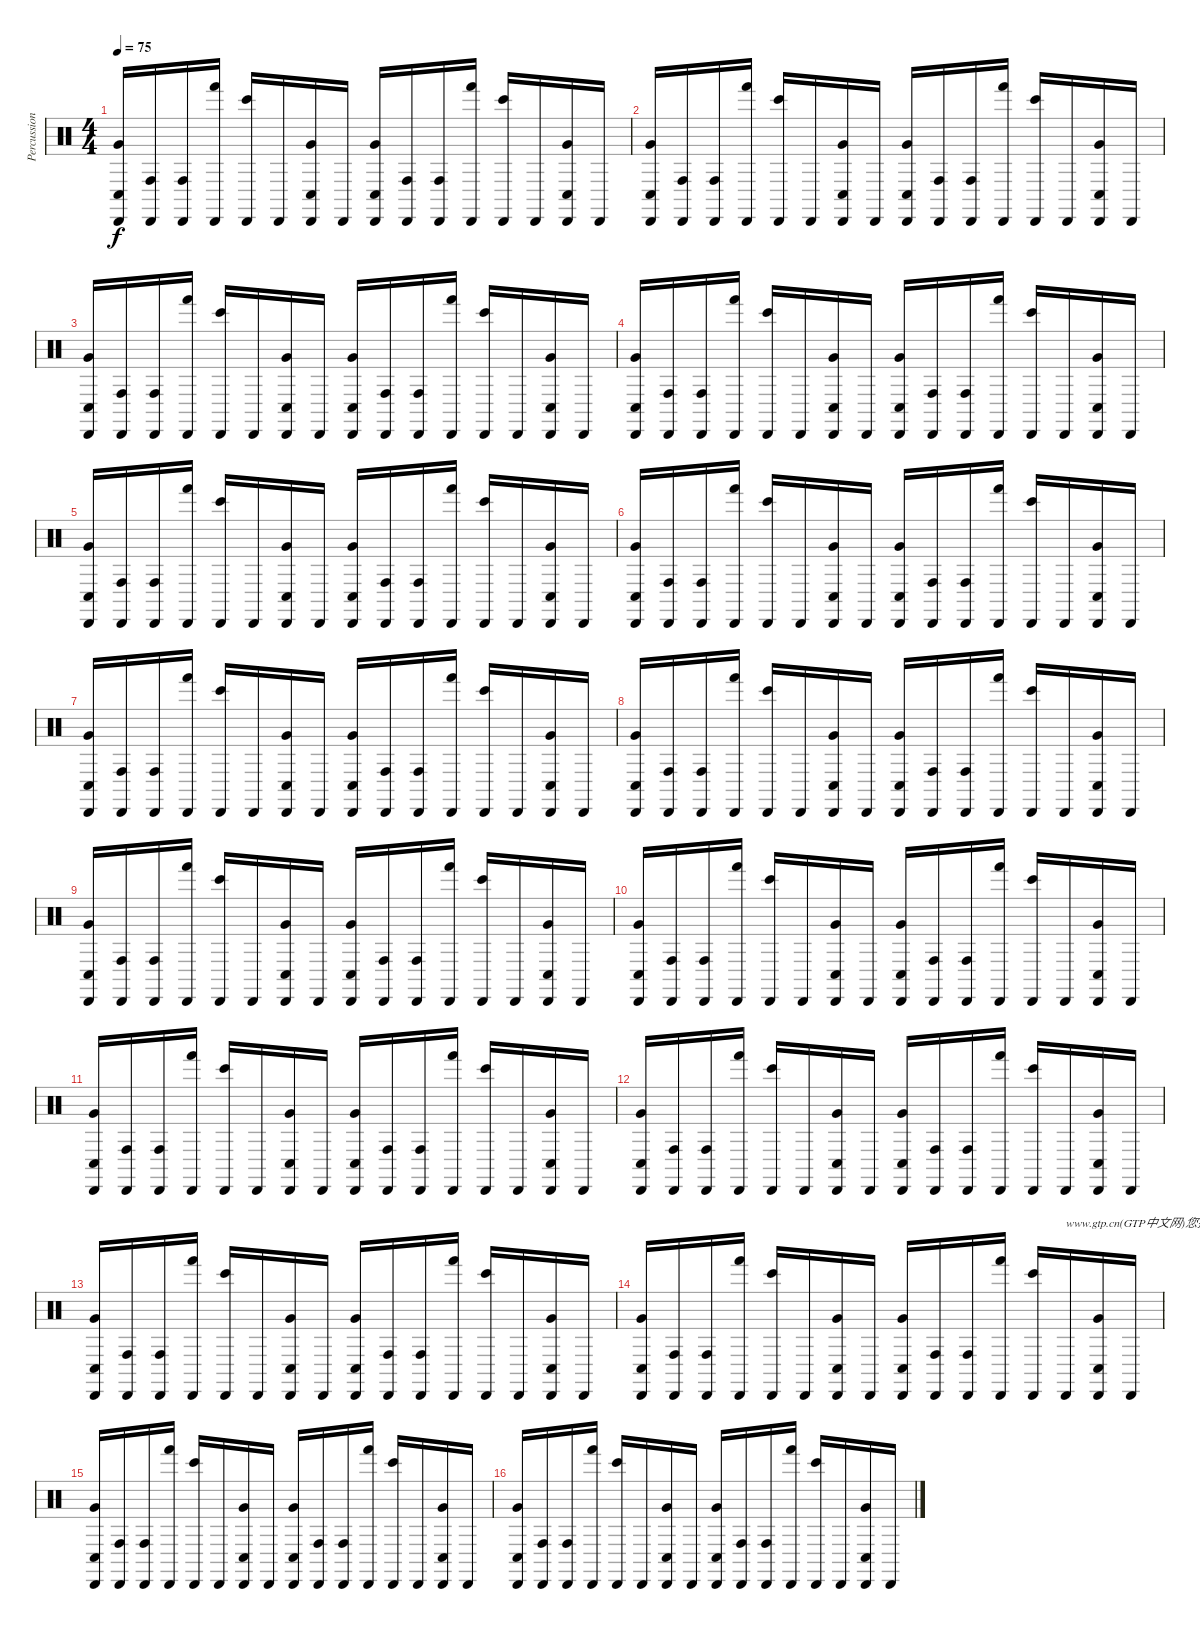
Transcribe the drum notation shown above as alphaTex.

\track ("Percussions" "Percussion") {instrument percussion}
\staff {score}
\articulation defaults
\ts (4 4)
\tempo 75
\clef neutral
\ks c
("Conga low (hit)" "Very Low Tom (hit)" "Cabasa (hit)").16{dy f} ("Conga high (hit)" "Cabasa (hit)").16 ("Conga high (hit)" "Cabasa (hit)").16 ("Hand (hit)" "Cabasa (hit)").16 ("Bongo High (hit)" "Cabasa (hit)").16 "Cabasa (hit)".16 ("Conga low (hit)" "Very Low Tom (hit)" "Cabasa (hit)").16 "Cabasa (hit)".16 ("Conga low (hit)" "Very Low Tom (hit)" "Cabasa (hit)").16 ("Conga high (hit)" "Cabasa (hit)").16 ("Conga high (hit)" "Cabasa (hit)").16 ("Hand (hit)" "Cabasa (hit)").16 ("Bongo High (hit)" "Cabasa (hit)").16 "Cabasa (hit)".16 ("Conga low (hit)" "Very Low Tom (hit)" "Cabasa (hit)").16 "Cabasa (hit)".16 |
("Conga low (hit)" "Very Low Tom (hit)" "Cabasa (hit)").16 ("Conga high (hit)" "Cabasa (hit)").16 ("Conga high (hit)" "Cabasa (hit)").16 ("Hand (hit)" "Cabasa (hit)").16 ("Bongo High (hit)" "Cabasa (hit)").16 "Cabasa (hit)".16 ("Conga low (hit)" "Very Low Tom (hit)" "Cabasa (hit)").16 "Cabasa (hit)".16 ("Conga low (hit)" "Very Low Tom (hit)" "Cabasa (hit)").16 ("Conga high (hit)" "Cabasa (hit)").16 ("Conga high (hit)" "Cabasa (hit)").16 ("Hand (hit)" "Cabasa (hit)").16 ("Bongo High (hit)" "Cabasa (hit)").16 "Cabasa (hit)".16 ("Conga low (hit)" "Very Low Tom (hit)" "Cabasa (hit)").16 "Cabasa (hit)".16 |
("Conga low (hit)" "Very Low Tom (hit)" "Cabasa (hit)").16 ("Conga high (hit)" "Cabasa (hit)").16 ("Conga high (hit)" "Cabasa (hit)").16 ("Hand (hit)" "Cabasa (hit)").16 ("Bongo High (hit)" "Cabasa (hit)").16 "Cabasa (hit)".16 ("Conga low (hit)" "Very Low Tom (hit)" "Cabasa (hit)").16 "Cabasa (hit)".16 ("Conga low (hit)" "Very Low Tom (hit)" "Cabasa (hit)").16 ("Conga high (hit)" "Cabasa (hit)").16 ("Conga high (hit)" "Cabasa (hit)").16 ("Hand (hit)" "Cabasa (hit)").16 ("Bongo High (hit)" "Cabasa (hit)").16 "Cabasa (hit)".16 ("Conga low (hit)" "Very Low Tom (hit)" "Cabasa (hit)").16 "Cabasa (hit)".16 |
("Conga low (hit)" "Very Low Tom (hit)" "Cabasa (hit)").16 ("Conga high (hit)" "Cabasa (hit)").16 ("Conga high (hit)" "Cabasa (hit)").16 ("Hand (hit)" "Cabasa (hit)").16 ("Bongo High (hit)" "Cabasa (hit)").16 "Cabasa (hit)".16 ("Conga low (hit)" "Very Low Tom (hit)" "Cabasa (hit)").16 "Cabasa (hit)".16 ("Conga low (hit)" "Very Low Tom (hit)" "Cabasa (hit)").16 ("Conga high (hit)" "Cabasa (hit)").16 ("Conga high (hit)" "Cabasa (hit)").16 ("Hand (hit)" "Cabasa (hit)").16 ("Bongo High (hit)" "Cabasa (hit)").16 "Cabasa (hit)".16 ("Conga low (hit)" "Very Low Tom (hit)" "Cabasa (hit)").16 "Cabasa (hit)".16 |
("Conga low (hit)" "Very Low Tom (hit)" "Cabasa (hit)").16 ("Conga high (hit)" "Cabasa (hit)").16 ("Conga high (hit)" "Cabasa (hit)").16 ("Hand (hit)" "Cabasa (hit)").16 ("Bongo High (hit)" "Cabasa (hit)").16 "Cabasa (hit)".16 ("Conga low (hit)" "Very Low Tom (hit)" "Cabasa (hit)").16 "Cabasa (hit)".16 ("Conga low (hit)" "Very Low Tom (hit)" "Cabasa (hit)").16 ("Conga high (hit)" "Cabasa (hit)").16 ("Conga high (hit)" "Cabasa (hit)").16 ("Hand (hit)" "Cabasa (hit)").16 ("Bongo High (hit)" "Cabasa (hit)").16 "Cabasa (hit)".16 ("Conga low (hit)" "Very Low Tom (hit)" "Cabasa (hit)").16 "Cabasa (hit)".16 |
("Conga low (hit)" "Very Low Tom (hit)" "Cabasa (hit)").16 ("Conga high (hit)" "Cabasa (hit)").16 ("Conga high (hit)" "Cabasa (hit)").16 ("Hand (hit)" "Cabasa (hit)").16 ("Bongo High (hit)" "Cabasa (hit)").16 "Cabasa (hit)".16 ("Conga low (hit)" "Very Low Tom (hit)" "Cabasa (hit)").16 "Cabasa (hit)".16 ("Conga low (hit)" "Very Low Tom (hit)" "Cabasa (hit)").16 ("Conga high (hit)" "Cabasa (hit)").16 ("Conga high (hit)" "Cabasa (hit)").16 ("Hand (hit)" "Cabasa (hit)").16 ("Bongo High (hit)" "Cabasa (hit)").16 "Cabasa (hit)".16 ("Conga low (hit)" "Very Low Tom (hit)" "Cabasa (hit)").16 "Cabasa (hit)".16 |
("Conga low (hit)" "Very Low Tom (hit)" "Cabasa (hit)").16 ("Conga high (hit)" "Cabasa (hit)").16 ("Conga high (hit)" "Cabasa (hit)").16 ("Hand (hit)" "Cabasa (hit)").16 ("Bongo High (hit)" "Cabasa (hit)").16 "Cabasa (hit)".16 ("Conga low (hit)" "Very Low Tom (hit)" "Cabasa (hit)").16 "Cabasa (hit)".16 ("Conga low (hit)" "Very Low Tom (hit)" "Cabasa (hit)").16 ("Conga high (hit)" "Cabasa (hit)").16 ("Conga high (hit)" "Cabasa (hit)").16 ("Hand (hit)" "Cabasa (hit)").16 ("Bongo High (hit)" "Cabasa (hit)").16 "Cabasa (hit)".16 ("Conga low (hit)" "Very Low Tom (hit)" "Cabasa (hit)").16 "Cabasa (hit)".16 |
("Conga low (hit)" "Very Low Tom (hit)" "Cabasa (hit)").16 ("Conga high (hit)" "Cabasa (hit)").16 ("Conga high (hit)" "Cabasa (hit)").16 ("Hand (hit)" "Cabasa (hit)").16 ("Bongo High (hit)" "Cabasa (hit)").16 "Cabasa (hit)".16 ("Conga low (hit)" "Very Low Tom (hit)" "Cabasa (hit)").16 "Cabasa (hit)".16 ("Conga low (hit)" "Very Low Tom (hit)" "Cabasa (hit)").16 ("Conga high (hit)" "Cabasa (hit)").16 ("Conga high (hit)" "Cabasa (hit)").16 ("Hand (hit)" "Cabasa (hit)").16 ("Bongo High (hit)" "Cabasa (hit)").16 "Cabasa (hit)".16 ("Conga low (hit)" "Very Low Tom (hit)" "Cabasa (hit)").16 "Cabasa (hit)".16 |
("Conga low (hit)" "Very Low Tom (hit)" "Cabasa (hit)").16 ("Conga high (hit)" "Cabasa (hit)").16 ("Conga high (hit)" "Cabasa (hit)").16 ("Hand (hit)" "Cabasa (hit)").16 ("Bongo High (hit)" "Cabasa (hit)").16 "Cabasa (hit)".16 ("Conga low (hit)" "Very Low Tom (hit)" "Cabasa (hit)").16 "Cabasa (hit)".16 ("Conga low (hit)" "Very Low Tom (hit)" "Cabasa (hit)").16 ("Conga high (hit)" "Cabasa (hit)").16 ("Conga high (hit)" "Cabasa (hit)").16 ("Hand (hit)" "Cabasa (hit)").16 ("Bongo High (hit)" "Cabasa (hit)").16 "Cabasa (hit)".16 ("Conga low (hit)" "Very Low Tom (hit)" "Cabasa (hit)").16 "Cabasa (hit)".16 |
("Conga low (hit)" "Very Low Tom (hit)" "Cabasa (hit)").16 ("Conga high (hit)" "Cabasa (hit)").16 ("Conga high (hit)" "Cabasa (hit)").16 ("Hand (hit)" "Cabasa (hit)").16 ("Bongo High (hit)" "Cabasa (hit)").16 "Cabasa (hit)".16 ("Conga low (hit)" "Very Low Tom (hit)" "Cabasa (hit)").16 "Cabasa (hit)".16 ("Conga low (hit)" "Very Low Tom (hit)" "Cabasa (hit)").16 ("Conga high (hit)" "Cabasa (hit)").16 ("Conga high (hit)" "Cabasa (hit)").16 ("Hand (hit)" "Cabasa (hit)").16 ("Bongo High (hit)" "Cabasa (hit)").16 "Cabasa (hit)".16 ("Conga low (hit)" "Very Low Tom (hit)" "Cabasa (hit)").16 "Cabasa (hit)".16 |
("Conga low (hit)" "Very Low Tom (hit)" "Cabasa (hit)").16 ("Conga high (hit)" "Cabasa (hit)").16 ("Conga high (hit)" "Cabasa (hit)").16 ("Hand (hit)" "Cabasa (hit)").16 ("Bongo High (hit)" "Cabasa (hit)").16 "Cabasa (hit)".16 ("Conga low (hit)" "Very Low Tom (hit)" "Cabasa (hit)").16 "Cabasa (hit)".16 ("Conga low (hit)" "Very Low Tom (hit)" "Cabasa (hit)").16 ("Conga high (hit)" "Cabasa (hit)").16 ("Conga high (hit)" "Cabasa (hit)").16 ("Hand (hit)" "Cabasa (hit)").16 ("Bongo High (hit)" "Cabasa (hit)").16 "Cabasa (hit)".16 ("Conga low (hit)" "Very Low Tom (hit)" "Cabasa (hit)").16 "Cabasa (hit)".16 |
("Conga low (hit)" "Very Low Tom (hit)" "Cabasa (hit)").16 ("Conga high (hit)" "Cabasa (hit)").16 ("Conga high (hit)" "Cabasa (hit)").16 ("Hand (hit)" "Cabasa (hit)").16 ("Bongo High (hit)" "Cabasa (hit)").16 "Cabasa (hit)".16 ("Conga low (hit)" "Very Low Tom (hit)" "Cabasa (hit)").16 "Cabasa (hit)".16 ("Conga low (hit)" "Very Low Tom (hit)" "Cabasa (hit)").16 ("Conga high (hit)" "Cabasa (hit)").16 ("Conga high (hit)" "Cabasa (hit)").16 ("Hand (hit)" "Cabasa (hit)").16 ("Bongo High (hit)" "Cabasa (hit)").16 "Cabasa (hit)".16 ("Conga low (hit)" "Very Low Tom (hit)" "Cabasa (hit)").16 "Cabasa (hit)".16 |
("Conga low (hit)" "Very Low Tom (hit)" "Cabasa (hit)").16 ("Conga high (hit)" "Cabasa (hit)").16 ("Conga high (hit)" "Cabasa (hit)").16 ("Hand (hit)" "Cabasa (hit)").16 ("Bongo High (hit)" "Cabasa (hit)").16 "Cabasa (hit)".16 ("Conga low (hit)" "Very Low Tom (hit)" "Cabasa (hit)").16 "Cabasa (hit)".16 ("Conga low (hit)" "Very Low Tom (hit)" "Cabasa (hit)").16 ("Conga high (hit)" "Cabasa (hit)").16 ("Conga high (hit)" "Cabasa (hit)").16 ("Hand (hit)" "Cabasa (hit)").16 ("Bongo High (hit)" "Cabasa (hit)").16 "Cabasa (hit)".16 ("Conga low (hit)" "Very Low Tom (hit)" "Cabasa (hit)").16 "Cabasa (hit)".16 |
("Conga low (hit)" "Very Low Tom (hit)" "Cabasa (hit)").16 ("Conga high (hit)" "Cabasa (hit)").16 ("Conga high (hit)" "Cabasa (hit)").16 ("Hand (hit)" "Cabasa (hit)").16 ("Bongo High (hit)" "Cabasa (hit)").16 "Cabasa (hit)".16 ("Conga low (hit)" "Very Low Tom (hit)" "Cabasa (hit)").16 "Cabasa (hit)".16 ("Conga low (hit)" "Very Low Tom (hit)" "Cabasa (hit)").16 ("Conga high (hit)" "Cabasa (hit)").16 ("Conga high (hit)" "Cabasa (hit)").16 ("Hand (hit)" "Cabasa (hit)").16 ("Bongo High (hit)" "Cabasa (hit)").16 "Cabasa (hit)".16{txt "www.gtp.cn(GTP中文网)您提供优秀的GTP"} ("Conga low (hit)" "Very Low Tom (hit)" "Cabasa (hit)").16 "Cabasa (hit)".16 |
("Conga low (hit)" "Very Low Tom (hit)" "Cabasa (hit)").16 ("Conga high (hit)" "Cabasa (hit)").16 ("Conga high (hit)" "Cabasa (hit)").16 ("Hand (hit)" "Cabasa (hit)").16 ("Bongo High (hit)" "Cabasa (hit)").16 "Cabasa (hit)".16 ("Conga low (hit)" "Very Low Tom (hit)" "Cabasa (hit)").16 "Cabasa (hit)".16 ("Conga low (hit)" "Very Low Tom (hit)" "Cabasa (hit)").16 ("Conga high (hit)" "Cabasa (hit)").16 ("Conga high (hit)" "Cabasa (hit)").16 ("Hand (hit)" "Cabasa (hit)").16 ("Bongo High (hit)" "Cabasa (hit)").16 "Cabasa (hit)".16 ("Conga low (hit)" "Very Low Tom (hit)" "Cabasa (hit)").16 "Cabasa (hit)".16 |
("Conga low (hit)" "Very Low Tom (hit)" "Cabasa (hit)").16 ("Conga high (hit)" "Cabasa (hit)").16 ("Conga high (hit)" "Cabasa (hit)").16 ("Hand (hit)" "Cabasa (hit)").16 ("Bongo High (hit)" "Cabasa (hit)").16 "Cabasa (hit)".16 ("Conga low (hit)" "Very Low Tom (hit)" "Cabasa (hit)").16 "Cabasa (hit)".16 ("Conga low (hit)" "Very Low Tom (hit)" "Cabasa (hit)").16 ("Conga high (hit)" "Cabasa (hit)").16 ("Conga high (hit)" "Cabasa (hit)").16 ("Hand (hit)" "Cabasa (hit)").16 ("Bongo High (hit)" "Cabasa (hit)").16 "Cabasa (hit)".16 ("Conga low (hit)" "Very Low Tom (hit)" "Cabasa (hit)").16 "Cabasa (hit)".16
